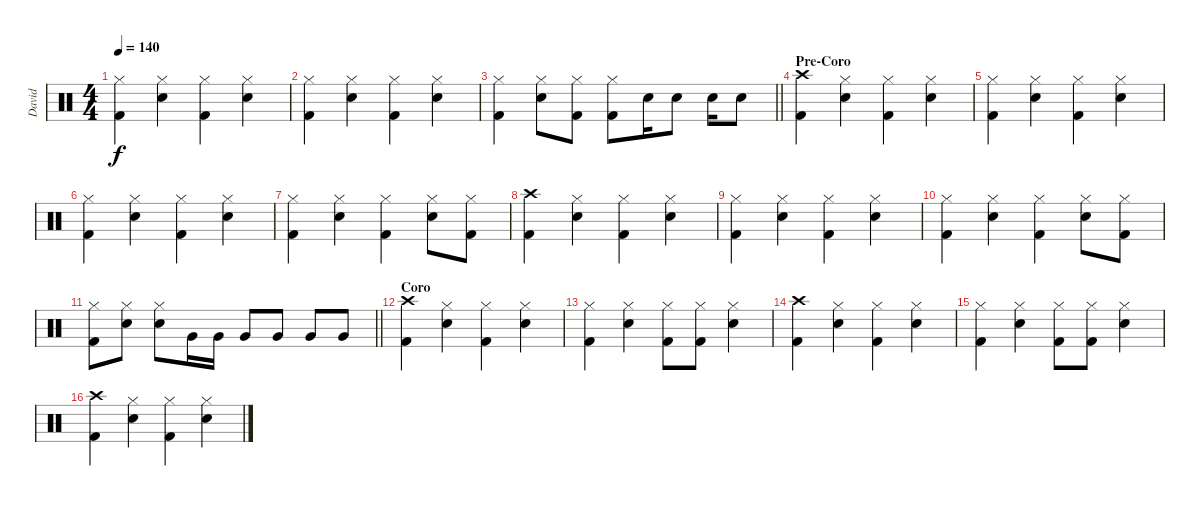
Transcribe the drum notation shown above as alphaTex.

\track ("David" "David") {instrument percussion}
\staff {score}
\articulation defaults
\ts (4 4)
\tempo 140
\clef neutral
\ks c
("Hi-Hat (closed)" "Kick (hit) 2").4{dy f} ("Hi-Hat (closed)" "Snare (hit) 2").4 ("Hi-Hat (closed)" "Kick (hit) 2").4 ("Hi-Hat (closed)" "Snare (hit) 2").4 |
("Hi-Hat (closed)" "Kick (hit) 2").4 ("Hi-Hat (closed)" "Snare (hit) 2").4 ("Hi-Hat (closed)" "Kick (hit) 2").4 ("Hi-Hat (closed)" "Snare (hit) 2").4 |
\barLineRight lightlight
("Hi-Hat (closed)" "Kick (hit) 2").4 ("Hi-Hat (closed)" "Snare (hit) 2").8 ("Hi-Hat (closed)" "Kick (hit) 2").8 ("Hi-Hat (closed)" "Kick (hit) 2").8 "Snare (hit) 2".16 "Snare (hit) 2".8 "Snare (hit) 2".16 "Snare (hit) 2".8 |
\section ("" "Pre-Coro")
("Crash high (hit)" "Kick (hit) 2").4 ("Hi-Hat (closed)" "Snare (hit) 2").4 ("Hi-Hat (closed)" "Kick (hit) 2").4 ("Hi-Hat (closed)" "Snare (hit) 2").4 |
("Hi-Hat (closed)" "Kick (hit) 2").4 ("Hi-Hat (closed)" "Snare (hit) 2").4 ("Hi-Hat (closed)" "Kick (hit) 2").4 ("Hi-Hat (closed)" "Snare (hit) 2").4 |
("Hi-Hat (closed)" "Kick (hit) 2").4 ("Hi-Hat (closed)" "Snare (hit) 2").4 ("Hi-Hat (closed)" "Kick (hit) 2").4 ("Hi-Hat (closed)" "Snare (hit) 2").4 |
("Hi-Hat (closed)" "Kick (hit) 2").4 ("Hi-Hat (closed)" "Snare (hit) 2").4 ("Hi-Hat (closed)" "Kick (hit) 2").4 ("Hi-Hat (closed)" "Snare (hit) 2").8 ("Hi-Hat (closed)" "Kick (hit) 2").8 |
("Crash high (hit)" "Kick (hit) 2").4 ("Hi-Hat (closed)" "Snare (hit) 2").4 ("Hi-Hat (closed)" "Kick (hit) 2").4 ("Hi-Hat (closed)" "Snare (hit) 2").4 |
("Hi-Hat (closed)" "Kick (hit) 2").4 ("Hi-Hat (closed)" "Snare (hit) 2").4 ("Hi-Hat (closed)" "Kick (hit) 2").4 ("Hi-Hat (closed)" "Snare (hit) 2").4 |
("Hi-Hat (closed)" "Kick (hit) 2").4 ("Hi-Hat (closed)" "Snare (hit) 2").4 ("Hi-Hat (closed)" "Kick (hit) 2").4 ("Hi-Hat (closed)" "Snare (hit) 2").8 ("Hi-Hat (closed)" "Kick (hit) 2").8 |
\barLineRight lightlight
("Hi-Hat (closed)" "Kick (hit) 2").8 ("Hi-Hat (closed)" "Snare (hit) 2").8 ("Hi-Hat (closed)" "Snare (hit) 2").8 "Very Low Tom (hit)".16 "Very Low Tom (hit)".16 "Very Low Tom (hit)".8 "Very Low Tom (hit)".8 "Very Low Tom (hit)".8 "Very Low Tom (hit)".8 |
\section ("" "Coro")
("Crash high (hit)" "Kick (hit) 2").4 ("Hi-Hat (closed)" "Snare (hit) 2").4 ("Hi-Hat (closed)" "Kick (hit) 2").4 ("Hi-Hat (closed)" "Snare (hit) 2").4 |
("Hi-Hat (closed)" "Kick (hit) 2").4 ("Hi-Hat (closed)" "Snare (hit) 2").4 ("Hi-Hat (closed)" "Kick (hit) 2").8 ("Hi-Hat (closed)" "Kick (hit) 2").8 ("Hi-Hat (closed)" "Snare (hit) 2").4 |
("Crash high (hit)" "Kick (hit) 2").4 ("Hi-Hat (closed)" "Snare (hit) 2").4 ("Hi-Hat (closed)" "Kick (hit) 2").4 ("Hi-Hat (closed)" "Snare (hit) 2").4 |
("Hi-Hat (closed)" "Kick (hit) 2").4 ("Hi-Hat (closed)" "Snare (hit) 2").4 ("Hi-Hat (closed)" "Kick (hit) 2").8 ("Hi-Hat (closed)" "Kick (hit) 2").8 ("Hi-Hat (closed)" "Snare (hit) 2").4 |
("Crash high (hit)" "Kick (hit) 2").4 ("Hi-Hat (closed)" "Snare (hit) 2").4 ("Hi-Hat (closed)" "Kick (hit) 2").4 ("Hi-Hat (closed)" "Snare (hit) 2").4
